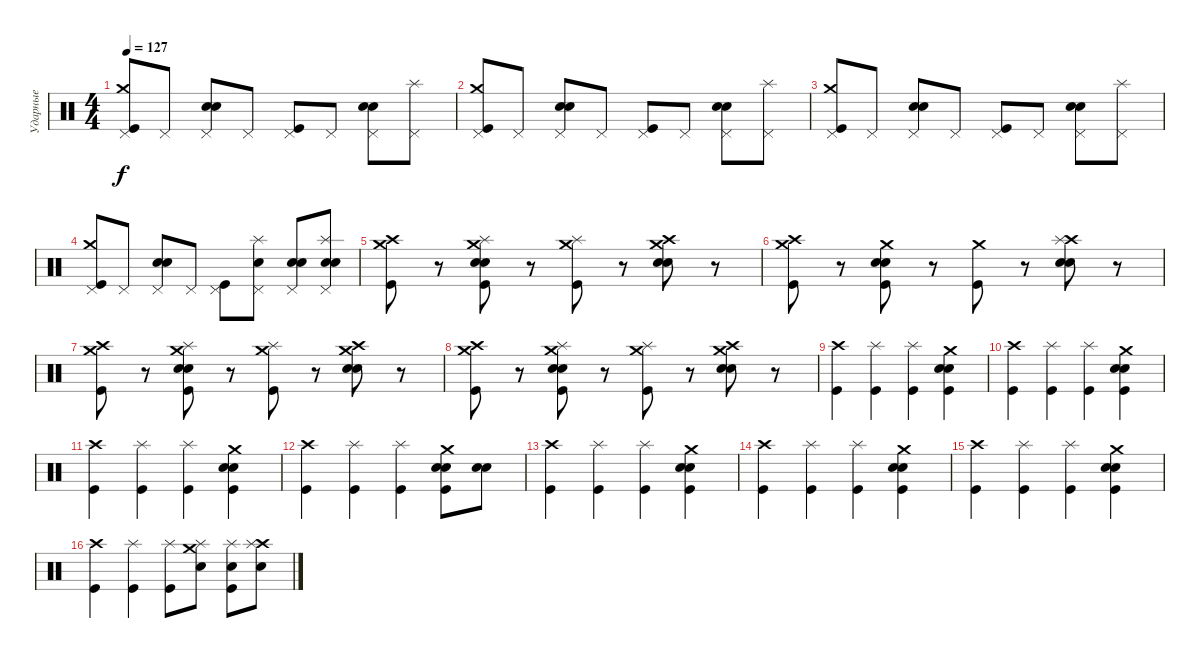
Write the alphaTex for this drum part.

\track ("Ударные" "Ударные") {instrument percussion}
\staff {score}
\articulation defaults
\ts (4 4)
\tempo 127
\clef neutral
\ks c
("Pedal Hi-Hat (hit)" "Crash medium (hit)" "Kick (hit)").8{dy f} "Pedal Hi-Hat (hit)".8 ("Pedal Hi-Hat (hit)" "Snare (hit) 2" "Snare (hit) 2").8 "Pedal Hi-Hat (hit)".8 ("Pedal Hi-Hat (hit)" "Kick (hit)").8 "Pedal Hi-Hat (hit)".8 ("Pedal Hi-Hat (hit)" "Snare (hit) 2" "Snare (hit) 2").8 ("Pedal Hi-Hat (hit)" "Splash (hit)").8 |
("Pedal Hi-Hat (hit)" "Crash medium (hit)" "Kick (hit)").8 "Pedal Hi-Hat (hit)".8 ("Pedal Hi-Hat (hit)" "Snare (hit) 2" "Snare (hit) 2").8 "Pedal Hi-Hat (hit)".8 ("Pedal Hi-Hat (hit)" "Kick (hit)").8 "Pedal Hi-Hat (hit)".8 ("Pedal Hi-Hat (hit)" "Snare (hit) 2" "Snare (hit) 2").8 ("Pedal Hi-Hat (hit)" "Splash (hit)").8 |
("Pedal Hi-Hat (hit)" "Crash medium (hit)" "Kick (hit)").8 "Pedal Hi-Hat (hit)".8 ("Pedal Hi-Hat (hit)" "Snare (hit) 2" "Snare (hit) 2").8 "Pedal Hi-Hat (hit)".8 ("Pedal Hi-Hat (hit)" "Kick (hit)").8 "Pedal Hi-Hat (hit)".8 ("Pedal Hi-Hat (hit)" "Snare (hit) 2" "Snare (hit) 2").8 ("Pedal Hi-Hat (hit)" "Splash (hit)").8 |
("Pedal Hi-Hat (hit)" "Crash medium (hit)" "Kick (hit)").8 "Pedal Hi-Hat (hit)".8 ("Pedal Hi-Hat (hit)" "Snare (hit) 2" "Snare (hit) 2").8 "Pedal Hi-Hat (hit)".8 ("Pedal Hi-Hat (hit)" "Kick (hit)").8 ("Pedal Hi-Hat (hit)" "Splash (hit)" "Snare (hit) 2").8 ("Pedal Hi-Hat (hit)" "Snare (hit) 2" "Snare (hit) 2").8 ("Pedal Hi-Hat (hit)" "Splash (hit)" "Electric Snare (hit)" "Electric Snare (hit)").8 |
("Crash high (hit)" "Crash medium (hit)" "Kick (hit)").8 r.8 ("Crash medium (hit)" "Splash (hit)" "Electric Snare (hit)" "Electric Snare (hit)" "Kick (hit)").8 r.8 ("Crash medium (hit)" "Splash (hit)" "Kick (hit)").8 r.8 ("Crash high (hit)" "Crash medium (hit)" "Electric Snare (hit)" "Electric Snare (hit)").8 r.8 |
("Crash high (hit)" "Crash medium (hit)" "Kick (hit)").8 r.8 ("Crash medium (hit)" "Electric Snare (hit)" "Electric Snare (hit)" "Kick (hit)").8 r.8 ("Crash medium (hit)" "Kick (hit)").8 r.8 ("Crash high (hit)" "Splash (hit)" "Electric Snare (hit)" "Electric Snare (hit)").8 r.8 |
("Crash high (hit)" "Crash medium (hit)" "Kick (hit)").8 r.8 ("Crash medium (hit)" "Splash (hit)" "Electric Snare (hit)" "Electric Snare (hit)" "Kick (hit)").8 r.8 ("Crash medium (hit)" "Splash (hit)" "Kick (hit)").8 r.8 ("Crash high (hit)" "Crash medium (hit)" "Electric Snare (hit)" "Electric Snare (hit)").8 r.8 |
("Crash high (hit)" "Crash medium (hit)" "Kick (hit)").8 r.8 ("Crash medium (hit)" "Splash (hit)" "Electric Snare (hit)" "Electric Snare (hit)" "Kick (hit)").8 r.8 ("Crash medium (hit)" "Splash (hit)" "Kick (hit)").8 r.8 ("Crash high (hit)" "Crash medium (hit)" "Electric Snare (hit)" "Electric Snare (hit)").8 r.8 |
("Crash high (hit)" "Kick (hit)").4 ("Splash (hit)" "Kick (hit)").4 ("Splash (hit)" "Kick (hit)").4 ("Crash medium (hit)" "Snare (hit) 2" "Snare (hit) 2" "Kick (hit)").4 |
("Crash high (hit)" "Kick (hit)").4 ("Splash (hit)" "Kick (hit)").4 ("Splash (hit)" "Kick (hit)").4 ("Crash medium (hit)" "Snare (hit) 2" "Snare (hit) 2" "Kick (hit)").4 |
("Crash high (hit)" "Kick (hit)").4 ("Splash (hit)" "Kick (hit)").4 ("Splash (hit)" "Kick (hit)").4 ("Crash medium (hit)" "Snare (hit) 2" "Snare (hit) 2" "Kick (hit)").4 |
("Crash high (hit)" "Kick (hit)").4 ("Splash (hit)" "Kick (hit)").4 ("Splash (hit)" "Kick (hit)").4 ("Crash medium (hit)" "Snare (hit) 2" "Snare (hit) 2" "Kick (hit)").8 ("Snare (hit) 2" "Snare (hit) 2").8 |
("Crash high (hit)" "Kick (hit)").4 ("Splash (hit)" "Kick (hit)").4 ("Splash (hit)" "Kick (hit)").4 ("Crash medium (hit)" "Snare (hit) 2" "Snare (hit) 2" "Kick (hit)").4 |
("Crash high (hit)" "Kick (hit)").4 ("Splash (hit)" "Kick (hit)").4 ("Splash (hit)" "Kick (hit)").4 ("Crash medium (hit)" "Snare (hit) 2" "Snare (hit) 2" "Kick (hit)").4 |
("Crash high (hit)" "Kick (hit)").4 ("Splash (hit)" "Kick (hit)").4 ("Splash (hit)" "Kick (hit)").4 ("Crash medium (hit)" "Snare (hit) 2" "Snare (hit) 2" "Kick (hit)").4 |
("Crash high (hit)" "Kick (hit)").4 ("Splash (hit)" "Kick (hit)").4 ("Splash (hit)" "Kick (hit)").8 ("Crash medium (hit)" "Splash (hit)" "Snare (hit) 2").8 ("Splash (hit)" "Snare (hit) 2" "Kick (hit)").8 ("Crash high (hit)" "Splash (hit)" "Snare (hit) 2").8
